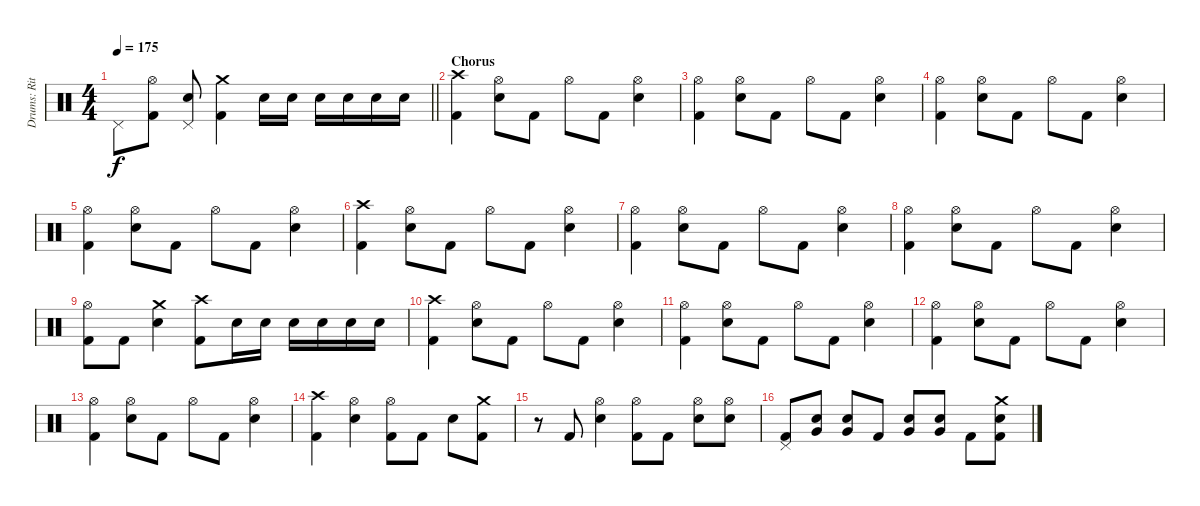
\track ("Drums: Ritsu Tainaka" "Drums: Rit") {instrument percussion}
\staff {score}
\articulation defaults
\ts (4 4)
\tempo 175
\clef neutral
\barLineRight lightlight
\ks c "Pedal Hi-Hat (hit)".8{dy f}
("Hi-Hat (open)" "Kick (hit) 2").8 ("Pedal Hi-Hat (hit)" "Snare (hit) 2").8 ("Crash medium (hit)" "Kick (hit) 2").4 "Snare (hit) 2".16 "Snare (hit) 2".16 "Snare (hit) 2".16 "Snare (hit) 2".16 "Snare (hit) 2".16 "Snare (hit) 2".16 |
\section ("" "Chorus")
("Crash high (hit)" "Kick (hit) 2").4 ("Hi-Hat (open)" "Snare (hit) 2").8 "Kick (hit) 2".8 "Hi-Hat (open)".8 "Kick (hit) 2".8 ("Hi-Hat (open)" "Snare (hit) 2").4 |
("Hi-Hat (open)" "Kick (hit) 2").4 ("Hi-Hat (open)" "Snare (hit) 2").8 "Kick (hit) 2".8 "Hi-Hat (open)".8 "Kick (hit) 2".8 ("Hi-Hat (open)" "Snare (hit) 2").4 |
("Hi-Hat (open)" "Kick (hit) 2").4 ("Hi-Hat (open)" "Snare (hit) 2").8 "Kick (hit) 2".8 "Hi-Hat (open)".8 "Kick (hit) 2".8 ("Hi-Hat (open)" "Snare (hit) 2").4 |
("Hi-Hat (open)" "Kick (hit) 2").4 ("Hi-Hat (open)" "Snare (hit) 2").8 "Kick (hit) 2".8 "Hi-Hat (open)".8 "Kick (hit) 2".8 ("Hi-Hat (open)" "Snare (hit) 2").4 |
("Crash high (hit)" "Kick (hit) 2").4 ("Hi-Hat (open)" "Snare (hit) 2").8 "Kick (hit) 2".8 "Hi-Hat (open)".8 "Kick (hit) 2".8 ("Hi-Hat (open)" "Snare (hit) 2").4 |
("Hi-Hat (open)" "Kick (hit) 2").4 ("Hi-Hat (open)" "Snare (hit) 2").8 "Kick (hit) 2".8 "Hi-Hat (open)".8 "Kick (hit) 2".8 ("Hi-Hat (open)" "Snare (hit) 2").4 |
("Hi-Hat (open)" "Kick (hit) 2").4 ("Hi-Hat (open)" "Snare (hit) 2").8 "Kick (hit) 2".8 "Hi-Hat (open)".8 "Kick (hit) 2".8 ("Hi-Hat (open)" "Snare (hit) 2").4 |
("Hi-Hat (open)" "Kick (hit) 2").8 "Kick (hit) 2".8 ("Crash medium (hit)" "Snare (hit) 2").4 ("Crash high (hit)" "Kick (hit) 2").8 "Snare (hit) 2".16 "Snare (hit) 2".16 "Snare (hit) 2".16 "Snare (hit) 2".16 "Snare (hit) 2".16 "Snare (hit) 2".16 |
("Crash high (hit)" "Kick (hit) 2").4 ("Hi-Hat (open)" "Snare (hit) 2").8 "Kick (hit) 2".8 "Hi-Hat (open)".8 "Kick (hit) 2".8 ("Hi-Hat (open)" "Snare (hit) 2").4 |
("Hi-Hat (open)" "Kick (hit) 2").4 ("Hi-Hat (open)" "Snare (hit) 2").8 "Kick (hit) 2".8 "Hi-Hat (open)".8 "Kick (hit) 2".8 ("Hi-Hat (open)" "Snare (hit) 2").4 |
("Hi-Hat (open)" "Kick (hit) 2").4 ("Hi-Hat (open)" "Snare (hit) 2").8 "Kick (hit) 2".8 "Hi-Hat (open)".8 "Kick (hit) 2".8 ("Hi-Hat (open)" "Snare (hit) 2").4 |
("Hi-Hat (open)" "Kick (hit) 2").4 ("Hi-Hat (open)" "Snare (hit) 2").8 "Kick (hit) 2".8 "Hi-Hat (open)".8 "Kick (hit) 2".8 ("Hi-Hat (open)" "Snare (hit) 2").4 |
("Crash high (hit)" "Kick (hit) 2").4 ("Hi-Hat (open)" "Snare (hit) 2").4 ("Hi-Hat (open)" "Kick (hit) 2").8 "Kick (hit) 2".8 "Snare (hit) 2".8 ("Crash medium (hit)" "Kick (hit) 2").8 |
r.8 "Kick (hit) 2".8 ("Hi-Hat (open)" "Snare (hit) 2").4 ("Hi-Hat (open)" "Kick (hit) 2").8 "Kick (hit) 2".8 ("Hi-Hat (open)" "Snare (hit) 2").8 ("Hi-Hat (open)" "Snare (hit) 2").8 |
("Pedal Hi-Hat (hit)" "Kick (hit) 2").8 ("Snare (hit) 2" "Very Low Tom (hit)").8 ("Snare (hit) 2" "Very Low Tom (hit)").8 "Kick (hit) 2".8 ("Snare (hit) 2" "Very Low Tom (hit)").8 ("Snare (hit) 2" "Very Low Tom (hit)").8 "Kick (hit) 2".8 ("Crash medium (hit)" "Snare (hit) 2" "Kick (hit) 2").8
